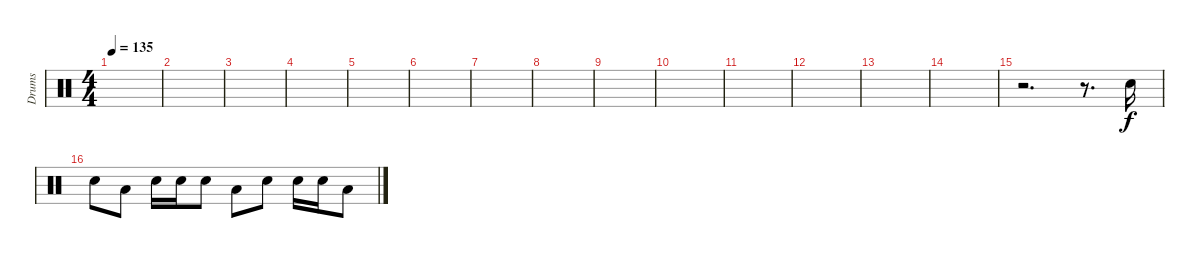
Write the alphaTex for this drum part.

\track ("Drums" "Drums") {instrument percussion}
\staff {score}
\articulation defaults
\ts (4 4)
\tempo 135
\clef neutral
\ks c
|
|
|
|
|
|
|
|
|
|
|
|
|
|
r.2{d volume 10} r.8{d} "Snare (hit) 2".16{volume 13} |
"Snare (hit) 2".8 "Low Tom (hit)".8 "Snare (hit) 2".16 "Snare (hit) 2".16 "Snare (hit) 2".8 "Low Tom (hit)".8 "Snare (hit) 2".8 "Snare (hit) 2".16 "Snare (hit) 2".16 "Low Tom (hit)".8
